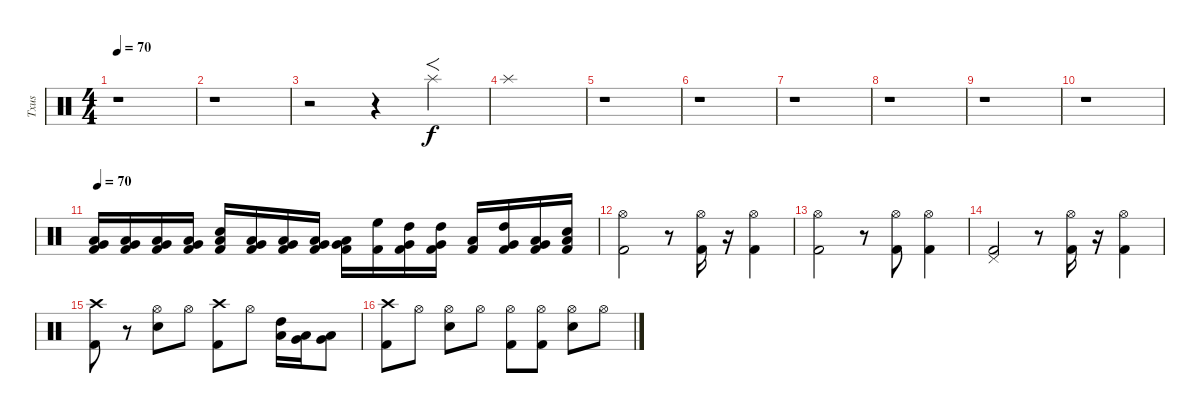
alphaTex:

\track ("Txus" "Txus") {instrument percussion}
\staff {score}
\articulation defaults
\ts (4 4)
\tempo 70
\clef neutral
\ks c
r.1{dy f} |
r.1 |
r.2 r.4 "Splash (hit)".4{f} |
"Splash (hit)".1 |
r.1 |
r.1 |
r.1 |
r.1 |
r.1 |
r.1 |
\tempo 70
("Kick (hit) 2" "Low Tom (hit)" "Very Low Tom (hit)").16{volume 4} ("Kick (hit) 2" "Low Tom (hit)" "Very Low Tom (hit)").16 ("Kick (hit) 2" "Low Tom (hit)" "Very Low Tom (hit)").16{volume 8} ("Kick (hit) 2" "Low Tom (hit)" "Very Low Tom (hit)").16 ("Kick (hit) 2" "Low Tom (hit)" "Metronome (bell)").16{volume 10} ("Kick (hit) 2" "Low Tom (hit)" "Very Low Tom (hit)").16 ("Kick (hit) 2" "Low Tom (hit)" "Very Low Tom (hit)").16{volume 12} ("Kick (hit) 2" "Low Tom (hit)" "Very Low Tom (hit)").16 ("Kick (hit) 2" "Low Tom (hit)" "Very Low Tom (hit)").16{volume 16} ("Kick (hit) 2" "High Floor Tom (hit)").16 ("Kick (hit) 2" "High Tom (hit)" "Very Low Tom (hit)").16 ("Kick (hit) 2" "High Tom (hit)" "Very Low Tom (hit)").16 ("Kick (hit) 2" "Low Floor Tom (hit)").16 ("Kick (hit) 2" "High Tom (hit)" "Very Low Tom (hit)").16 ("Kick (hit) 2" "Low Tom (hit)" "Very Low Tom (hit)").16 ("Kick (hit) 2" "Low Tom (hit)" "Metronome (bell)").16 |
("Kick (hit) 2" "Hi-Hat (open)").2 r.8 ("Kick (hit) 2" "Hi-Hat (open)").16 r.16 ("Kick (hit) 2" "Hi-Hat (open)").4 |
("Kick (hit) 2" "Hi-Hat (open)").2 r.8 ("Kick (hit) 2" "Hi-Hat (open)").8 ("Kick (hit) 2" "Hi-Hat (open)").4 |
("Kick (hit) 2" "Pedal Hi-Hat (hit)").2 r.8 ("Kick (hit) 2" "Hi-Hat (open)").16 r.16 ("Kick (hit) 2" "Hi-Hat (open)").4 |
("Kick (hit) 2" "Crash high (hit)").8 r.8 ("Snare (hit) 2" "Hi-Hat (open)").8 "Hi-Hat (open)".8 ("Kick (hit) 2" "Crash high (hit)").8 "Hi-Hat (open)".8 ("High Tom (hit)" "Low Tom (hit)").16 ("Low Tom (hit)" "Very Low Tom (hit)").16 ("Very Low Tom (hit)" "Low Floor Tom (hit)").8 |
("Kick (hit) 2" "Crash high (hit)").8 "Hi-Hat (open)".8 ("Snare (hit) 2" "Hi-Hat (open)").8 "Hi-Hat (open)".8 ("Kick (hit) 2" "Hi-Hat (open)").8 ("Kick (hit) 2" "Hi-Hat (open)").8 ("Snare (hit) 2" "Hi-Hat (open)").8 "Hi-Hat (open)".8
